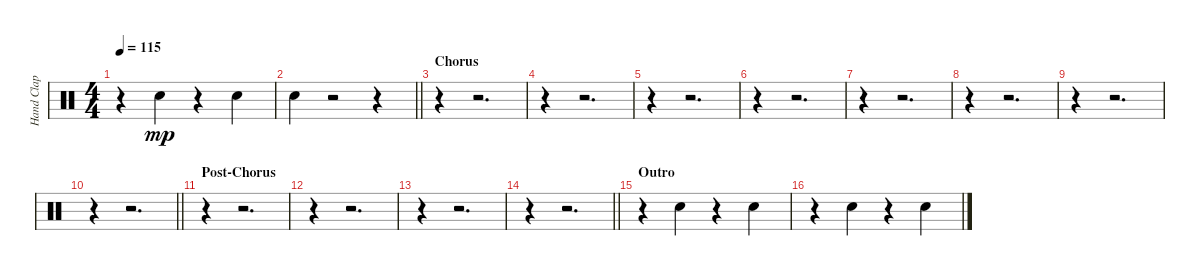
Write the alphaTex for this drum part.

\track ("Hand Clap" "Hand Clap") {instrument percussion}
\staff {score}
\articulation defaults
\ts (4 4)
\tempo 115
\clef neutral
\ks c
r.4{dy mp} "Hand Clap (hit)".4 r.4 "Hand Clap (hit)".4 |
\barLineRight lightlight "Hand Clap (hit)".4
r.2 r.4 |
\section ("" "Chorus")
r.4 r.2{d} |
r.4 r.2{d} |
r.4 r.2{d} |
r.4 r.2{d} |
r.4 r.2{d} |
r.4 r.2{d} |
r.4 r.2{d} |
\barLineRight lightlight
r.4 r.2{d} |
\section ("" "Post-Chorus")
r.4 r.2{d} |
r.4 r.2{d} |
r.4 r.2{d} |
\barLineRight lightlight
r.4 r.2{d} |
\section ("" "Outro")
r.4 "Hand Clap (hit)".4 r.4 "Hand Clap (hit)".4 |
r.4 "Hand Clap (hit)".4 r.4 "Hand Clap (hit)".4
